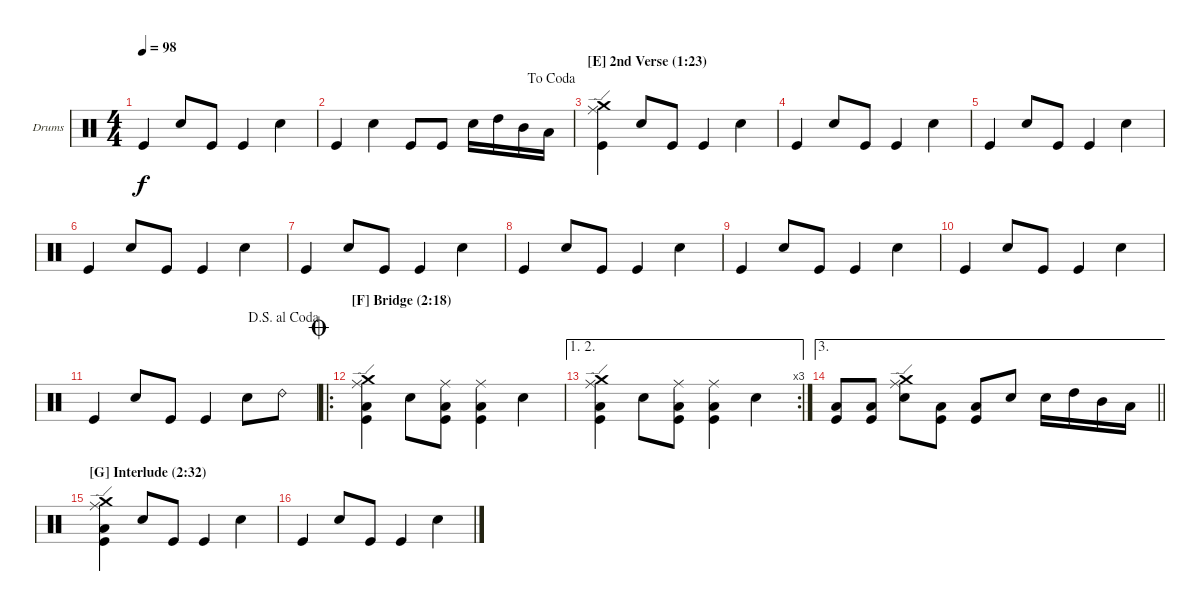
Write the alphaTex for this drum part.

\defaultSystemsLayout 4
\bracketExtendMode groupsimilarinstruments
\firstSystemTrackNameOrientation horizontal
\otherSystemsTrackNameOrientation horizontal
\track ("Drums" "Drums") {instrument percussion}
\staff {score}
\articulation defaults
\ts (4 4)
\tempo 98
\clef neutral
\scale
1.07945
\ks c "Kick (hit)".4{dy f} "Snare (hit) 2".8 "Kick (hit)".8 "Kick (hit)".4 "Snare (hit) 2".4
|
\jump dacoda
\scale
0.973518 "Kick (hit)".4 "Snare (hit) 2".4 "Kick (hit)".8 "Kick (hit)".8 "Snare (hit) 2".16 "High Tom (hit)".16 "Mid Tom (hit)".16 "Low Tom (hit)".16 |
\section ("E" "2nd Verse (1:23)")
\scale
0.973518 ("Kick (hit)" "Ride (edge)" "Crash medium (hit)").4 "Snare (hit) 2".8 "Kick (hit)".8 "Kick (hit)".4 "Snare (hit) 2".4 |
\scale
0.973518 "Kick (hit)".4 "Snare (hit) 2".8 "Kick (hit)".8 "Kick (hit)".4 "Snare (hit) 2".4 |
\scale
1.07945 "Kick (hit)".4 "Snare (hit) 2".8 "Kick (hit)".8 "Kick (hit)".4 "Snare (hit) 2".4 |
\scale
0.973518 "Kick (hit)".4 "Snare (hit) 2".8 "Kick (hit)".8 "Kick (hit)".4 "Snare (hit) 2".4 |
\scale
0.973518 "Kick (hit)".4 "Snare (hit) 2".8 "Kick (hit)".8 "Kick (hit)".4 "Snare (hit) 2".4 |
\scale
0.973518 "Kick (hit)".4 "Snare (hit) 2".8 "Kick (hit)".8 "Kick (hit)".4 "Snare (hit) 2".4 |
\scale
1.07945 "Kick (hit)".4 "Snare (hit) 2".8 "Kick (hit)".8 "Kick (hit)".4 "Snare (hit) 2".4 |
\scale
0.973518 "Kick (hit)".4 "Snare (hit) 2".8 "Kick (hit)".8 "Kick (hit)".4 "Snare (hit) 2".4 |
\jump dalsegnoalcoda
\scale
0.973518 "Kick (hit)".4 "Snare (hit) 2".8 "Kick (hit)".8 "Kick (hit)".4 "Snare (hit) 2".8 "Ride (bell) 2".8 |
\ro
\section ("F" "Bridge (2:18)")
\jump coda
\scale
0.973518 ("Kick (hit)" "Ride (edge)" "Low Tom (hit)" "Crash medium (hit)").4 "Snare (hit) 2".8 ("Kick (hit)" "Low Tom (hit)" "Ride (middle)").8 ("Kick (hit)" "Low Tom (hit)" "Ride (middle)").4 "Snare (hit) 2".4 |
\ae (1 2)
\rc 3
\scale
1.07945 ("Kick (hit)" "Ride (edge)" "Low Tom (hit)" "Crash medium (hit)").4 "Snare (hit) 2".8 ("Kick (hit)" "Low Tom (hit)" "Ride (middle)").8 ("Kick (hit)" "Low Tom (hit)" "Ride (middle)").4 "Snare (hit) 2".4 |
\ae 3
\scale
0.973518
\barLineRight lightlight
("Low Tom (hit)" "Kick (hit)").8 ("Low Tom (hit)" "Kick (hit)").8 ("Snare (hit) 2" "Ride (edge)" "Crash medium (hit)").8 ("Kick (hit)" "Low Tom (hit)").8 ("Kick (hit)" "Low Tom (hit)").8 "Snare (hit) 2".8 "Snare (hit) 2".16 "High Tom (hit)".16 "Mid Tom (hit)".16 "Low Tom (hit)".16 |
\section ("G" "Interlude (2:32)")
\scale
0.973518 ("Kick (hit)" "Low Tom (hit)" "Ride (edge)" "Crash medium (hit)").4 "Snare (hit) 2".8 "Kick (hit)".8 "Kick (hit)".4 "Snare (hit) 2".4 |
\scale
0.973518 "Kick (hit)".4 "Snare (hit) 2".8 "Kick (hit)".8 "Kick (hit)".4 "Snare (hit) 2".4
